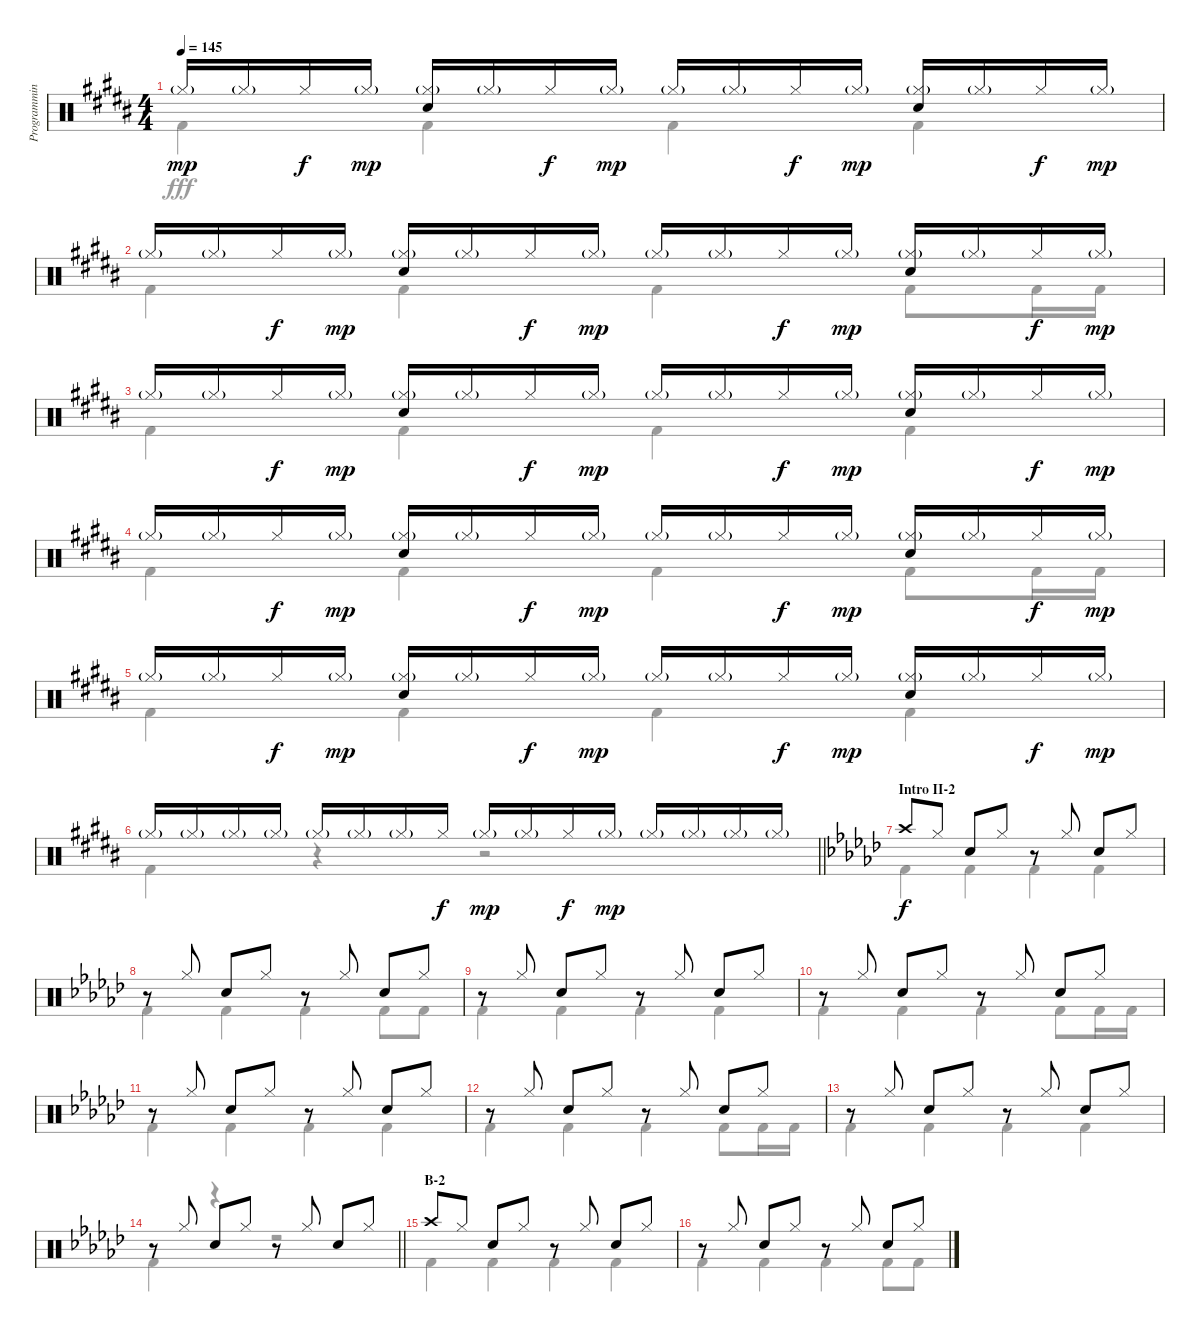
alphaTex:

\track ("Programming Drums I" "Programmin") {instrument percussion}
\staff {score}
\articulation defaults
\voice
\ts (4 4)
\tempo 145
\clef neutral
\ks b "Hi-Hat (closed)"{g}.16{dy mp} "Hi-Hat (closed)"{g}.16 "Hi-Hat (closed)".16{dy f} "Hi-Hat (closed)"{g}.16{dy mp}
("Hi-Hat (closed)"{g} "Snare (hit) 2").16 "Hi-Hat (closed)"{g}.16 "Hi-Hat (closed)".16{dy f} "Hi-Hat (closed)"{g}.16{dy mp} "Hi-Hat (closed)"{g}.16 "Hi-Hat (closed)"{g}.16 "Hi-Hat (closed)".16{dy f} "Hi-Hat (closed)"{g}.16{dy mp} ("Hi-Hat (closed)"{g} "Snare (hit) 2").16 "Hi-Hat (closed)"{g}.16 "Hi-Hat (closed)".16{dy f} "Hi-Hat (closed)"{g}.16{dy mp} |
"Hi-Hat (closed)"{g}.16 "Hi-Hat (closed)"{g}.16 "Hi-Hat (closed)".16{dy f} "Hi-Hat (closed)"{g}.16{dy mp} ("Hi-Hat (closed)"{g} "Snare (hit) 2").16 "Hi-Hat (closed)"{g}.16 "Hi-Hat (closed)".16{dy f} "Hi-Hat (closed)"{g}.16{dy mp} "Hi-Hat (closed)"{g}.16 "Hi-Hat (closed)"{g}.16 "Hi-Hat (closed)".16{dy f} "Hi-Hat (closed)"{g}.16{dy mp} ("Hi-Hat (closed)"{g} "Snare (hit) 2").16 "Hi-Hat (closed)"{g}.16 "Hi-Hat (closed)".16{dy f} "Hi-Hat (closed)"{g}.16{dy mp} |
"Hi-Hat (closed)"{g}.16 "Hi-Hat (closed)"{g}.16 "Hi-Hat (closed)".16{dy f} "Hi-Hat (closed)"{g}.16{dy mp} ("Hi-Hat (closed)"{g} "Snare (hit) 2").16 "Hi-Hat (closed)"{g}.16 "Hi-Hat (closed)".16{dy f} "Hi-Hat (closed)"{g}.16{dy mp} "Hi-Hat (closed)"{g}.16 "Hi-Hat (closed)"{g}.16 "Hi-Hat (closed)".16{dy f} "Hi-Hat (closed)"{g}.16{dy mp} ("Hi-Hat (closed)"{g} "Snare (hit) 2").16 "Hi-Hat (closed)"{g}.16 "Hi-Hat (closed)".16{dy f} "Hi-Hat (closed)"{g}.16{dy mp} |
"Hi-Hat (closed)"{g}.16 "Hi-Hat (closed)"{g}.16 "Hi-Hat (closed)".16{dy f} "Hi-Hat (closed)"{g}.16{dy mp} ("Hi-Hat (closed)"{g} "Snare (hit) 2").16 "Hi-Hat (closed)"{g}.16 "Hi-Hat (closed)".16{dy f} "Hi-Hat (closed)"{g}.16{dy mp} "Hi-Hat (closed)"{g}.16 "Hi-Hat (closed)"{g}.16 "Hi-Hat (closed)".16{dy f} "Hi-Hat (closed)"{g}.16{dy mp} ("Hi-Hat (closed)"{g} "Snare (hit) 2").16 "Hi-Hat (closed)"{g}.16 "Hi-Hat (closed)".16{dy f} "Hi-Hat (closed)"{g}.16{dy mp} |
"Hi-Hat (closed)"{g}.16 "Hi-Hat (closed)"{g}.16 "Hi-Hat (closed)".16{dy f} "Hi-Hat (closed)"{g}.16{dy mp} ("Hi-Hat (closed)"{g} "Snare (hit) 2").16 "Hi-Hat (closed)"{g}.16 "Hi-Hat (closed)".16{dy f} "Hi-Hat (closed)"{g}.16{dy mp} "Hi-Hat (closed)"{g}.16 "Hi-Hat (closed)"{g}.16 "Hi-Hat (closed)".16{dy f} "Hi-Hat (closed)"{g}.16{dy mp} ("Hi-Hat (closed)"{g} "Snare (hit) 2").16 "Hi-Hat (closed)"{g}.16 "Hi-Hat (closed)".16{dy f} "Hi-Hat (closed)"{g}.16{dy mp} |
\barLineRight lightlight "Hi-Hat (closed)"{g}.16 "Hi-Hat (closed)"{g}.16 "Hi-Hat (closed)"{g}.16 "Hi-Hat (closed)"{g}.16 "Hi-Hat (closed)"{g}.16 "Hi-Hat (closed)"{g}.16 "Hi-Hat (closed)"{g}.16 "Hi-Hat (closed)".16{dy f} "Hi-Hat (closed)"{g}.16{dy mp} "Hi-Hat (closed)"{g}.16 "Hi-Hat (closed)".16{dy f} "Hi-Hat (closed)"{g}.16{dy mp} "Hi-Hat (closed)"{g}.16 "Hi-Hat (closed)"{g}.16 "Hi-Hat (closed)"{g}.16 "Hi-Hat (closed)"{g}.16
|
\section ("" "Intro II-2")
\ks gb "Crash high (hit)".8{dy f} "Hi-Hat (closed)".8 "Snare (hit) 2".8 "Hi-Hat (closed)".8
r.8 "Hi-Hat (closed)".8 "Snare (hit) 2".8 "Hi-Hat (closed)".8 |
r.8 "Hi-Hat (closed)".8 "Snare (hit) 2".8 "Hi-Hat (closed)".8 r.8 "Hi-Hat (closed)".8 "Snare (hit) 2".8 "Hi-Hat (closed)".8 |
r.8 "Hi-Hat (closed)".8 "Snare (hit) 2".8 "Hi-Hat (closed)".8 r.8 "Hi-Hat (closed)".8 "Snare (hit) 2".8 "Hi-Hat (closed)".8 |
r.8 "Hi-Hat (closed)".8 "Snare (hit) 2".8 "Hi-Hat (closed)".8 r.8 "Hi-Hat (closed)".8 "Snare (hit) 2".8 "Hi-Hat (closed)".8 |
r.8 "Hi-Hat (closed)".8 "Snare (hit) 2".8 "Hi-Hat (closed)".8 r.8 "Hi-Hat (closed)".8 "Snare (hit) 2".8 "Hi-Hat (closed)".8 |
r.8 "Hi-Hat (closed)".8 "Snare (hit) 2".8 "Hi-Hat (closed)".8 r.8 "Hi-Hat (closed)".8 "Snare (hit) 2".8 "Hi-Hat (closed)".8 |
r.8 "Hi-Hat (closed)".8 "Snare (hit) 2".8 "Hi-Hat (closed)".8 r.8 "Hi-Hat (closed)".8 "Snare (hit) 2".8 "Hi-Hat (closed)".8 |
\barLineRight lightlight
r.8 "Hi-Hat (closed)".8 "Snare (hit) 2".8 "Hi-Hat (closed)".8 r.8 "Hi-Hat (closed)".8 "Snare (hit) 2".8 "Hi-Hat (closed)".8 |
\section ("" "B-2")
"Crash high (hit)".8 "Hi-Hat (closed)".8 "Snare (hit) 2".8 "Hi-Hat (closed)".8 r.8 "Hi-Hat (closed)".8 "Snare (hit) 2".8 "Hi-Hat (closed)".8 |
r.8 "Hi-Hat (closed)".8 "Snare (hit) 2".8 "Hi-Hat (closed)".8 r.8 "Hi-Hat (closed)".8 "Snare (hit) 2".8 "Hi-Hat (closed)".8
\voice
\clef neutral
\ottava regular
\simile none
\ks b "Kick (hit) 2".4{dy fff} "Kick (hit) 2".4 "Kick (hit) 2".4 "Kick (hit) 2".4
|
"Kick (hit) 2".4 "Kick (hit) 2".4 "Kick (hit) 2".4 "Kick (hit) 2".8 "Kick (hit) 2".16 "Kick (hit) 2".16 |
"Kick (hit) 2".4 "Kick (hit) 2".4 "Kick (hit) 2".4 "Kick (hit) 2".4 |
"Kick (hit) 2".4 "Kick (hit) 2".4 "Kick (hit) 2".4 "Kick (hit) 2".8 "Kick (hit) 2".16 "Kick (hit) 2".16 |
"Kick (hit) 2".4 "Kick (hit) 2".4 "Kick (hit) 2".4 "Kick (hit) 2".4 |
\barLineRight lightlight "Kick (hit) 2".4
r.4 r.2 |
\ks gb "Kick (hit) 2".4 "Kick (hit) 2".4 "Kick (hit) 2".4 "Kick (hit) 2".4
|
"Kick (hit) 2".4 "Kick (hit) 2".4 "Kick (hit) 2".4 "Kick (hit) 2".8 "Kick (hit) 2".8 |
"Kick (hit) 2".4 "Kick (hit) 2".4 "Kick (hit) 2".4 "Kick (hit) 2".4 |
"Kick (hit) 2".4 "Kick (hit) 2".4 "Kick (hit) 2".4 "Kick (hit) 2".8 "Kick (hit) 2".16 "Kick (hit) 2".16 |
"Kick (hit) 2".4 "Kick (hit) 2".4 "Kick (hit) 2".4 "Kick (hit) 2".4 |
"Kick (hit) 2".4 "Kick (hit) 2".4 "Kick (hit) 2".4 "Kick (hit) 2".8 "Kick (hit) 2".16 "Kick (hit) 2".16 |
"Kick (hit) 2".4 "Kick (hit) 2".4 "Kick (hit) 2".4 "Kick (hit) 2".4 |
\barLineRight lightlight "Kick (hit) 2".4
r.4 r.2 |
"Kick (hit) 2".4 "Kick (hit) 2".4 "Kick (hit) 2".4 "Kick (hit) 2".4 |
"Kick (hit) 2".4 "Kick (hit) 2".4 "Kick (hit) 2".4 "Kick (hit) 2".8 "Kick (hit) 2".8
